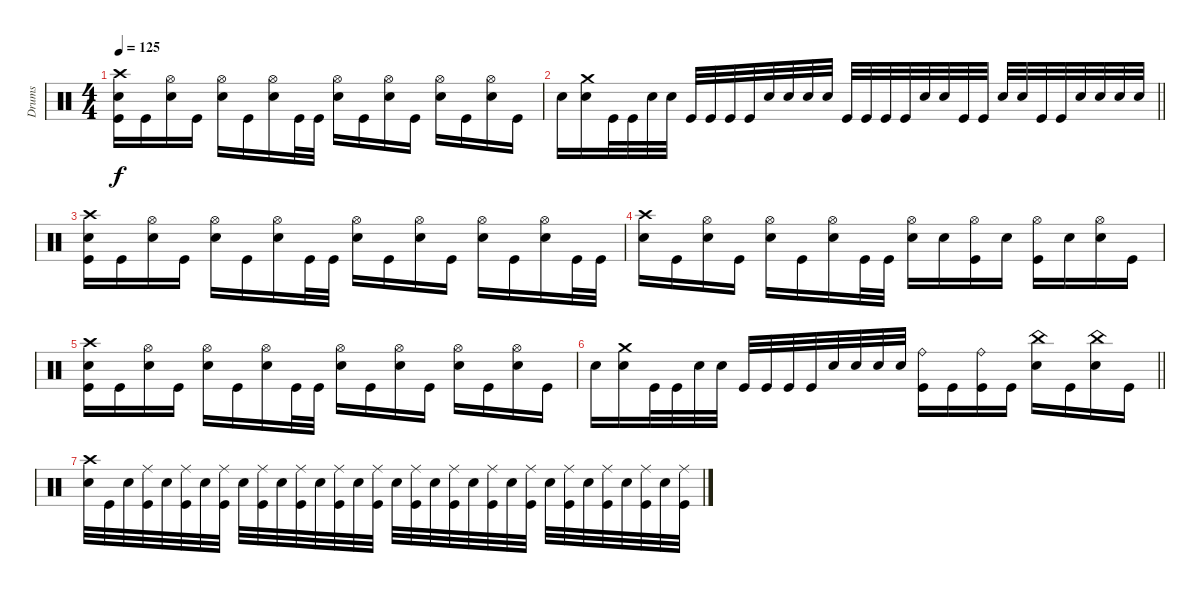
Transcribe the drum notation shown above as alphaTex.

\track ("Drums" "Drums") {instrument percussion}
\staff
\articulation defaults
\ts (4 4)
\tempo 125
\clef neutral
\ks c
("Crash high (hit)" "Electric Snare (hit)" "Kick (hit)").16{dy f} "Kick (hit)".16 ("Hi-Hat (open)" "Electric Snare (hit)").16 "Kick (hit)".16 ("Hi-Hat (open)" "Electric Snare (hit)").16 "Kick (hit)".16 ("Hi-Hat (open)" "Electric Snare (hit)").16 "Kick (hit)".32 "Kick (hit)".32 ("Hi-Hat (open)" "Electric Snare (hit)").16 "Kick (hit)".16 ("Hi-Hat (open)" "Electric Snare (hit)").16 "Kick (hit)".16 ("Hi-Hat (open)" "Electric Snare (hit)").16 "Kick (hit)".16 ("Hi-Hat (open)" "Electric Snare (hit)").16 "Kick (hit)".16 |
\barLineRight lightlight "Electric Snare (hit)".16
("Crash medium (hit)" "Electric Snare (hit)").16 "Kick (hit)".32 "Kick (hit)".32 "Electric Snare (hit)".32 "Electric Snare (hit)".32 "Kick (hit)".32 "Kick (hit)".32 "Kick (hit)".32 "Kick (hit)".32 "Electric Snare (hit)".32 "Electric Snare (hit)".32 "Electric Snare (hit)".32 "Electric Snare (hit)".32 "Kick (hit)".32 "Kick (hit)".32 "Kick (hit)".32 "Kick (hit)".32 "Electric Snare (hit)".32 "Electric Snare (hit)".32 "Kick (hit)".32 "Kick (hit)".32 "Electric Snare (hit)".32 "Electric Snare (hit)".32 "Kick (hit)".32 "Kick (hit)".32 "Electric Snare (hit)".32 "Electric Snare (hit)".32 "Electric Snare (hit)".32 "Electric Snare (hit)".32 |
("Crash high (hit)" "Electric Snare (hit)" "Kick (hit)").16 "Kick (hit)".16 ("Hi-Hat (open)" "Electric Snare (hit)").16 "Kick (hit)".16 ("Hi-Hat (open)" "Electric Snare (hit)").16 "Kick (hit)".16 ("Hi-Hat (open)" "Electric Snare (hit)").16 "Kick (hit)".32 "Kick (hit)".32 ("Hi-Hat (open)" "Electric Snare (hit)").16 "Kick (hit)".16 ("Hi-Hat (open)" "Electric Snare (hit)").16 "Kick (hit)".16 ("Hi-Hat (open)" "Electric Snare (hit)").16 "Kick (hit)".16 ("Hi-Hat (open)" "Electric Snare (hit)").16 "Kick (hit)".32 "Kick (hit)".32 |
("Crash high (hit)" "Electric Snare (hit)").16 "Kick (hit)".16 ("Hi-Hat (open)" "Electric Snare (hit)").16 "Kick (hit)".16 ("Hi-Hat (open)" "Electric Snare (hit)").16 "Kick (hit)".16 ("Hi-Hat (open)" "Electric Snare (hit)").16 "Kick (hit)".32 "Kick (hit)".32 ("Hi-Hat (open)" "Electric Snare (hit)").16 "Electric Snare (hit)".16 ("Hi-Hat (open)" "Kick (hit)").16 "Electric Snare (hit)".16 ("Hi-Hat (open)" "Kick (hit)").16 "Electric Snare (hit)".16 ("Hi-Hat (open)" "Electric Snare (hit)").16 "Kick (hit)".16 |
("Crash high (hit)" "Electric Snare (hit)" "Kick (hit)").16 "Kick (hit)".16 ("Hi-Hat (open)" "Electric Snare (hit)").16 "Kick (hit)".16 ("Hi-Hat (open)" "Electric Snare (hit)").16 "Kick (hit)".16 ("Hi-Hat (open)" "Electric Snare (hit)").16 "Kick (hit)".32 "Kick (hit)".32 ("Hi-Hat (open)" "Electric Snare (hit)").16 "Kick (hit)".16 ("Hi-Hat (open)" "Electric Snare (hit)").16 "Kick (hit)".16 ("Hi-Hat (open)" "Electric Snare (hit)").16 "Kick (hit)".16 ("Hi-Hat (open)" "Electric Snare (hit)").16 "Kick (hit)".16 |
\barLineRight lightlight "Electric Snare (hit)".16
("Crash medium (hit)" "Electric Snare (hit)").16 "Kick (hit)".32 "Kick (hit)".32 "Electric Snare (hit)".32 "Electric Snare (hit)".32 "Kick (hit)".32 "Kick (hit)".32 "Kick (hit)".32 "Kick (hit)".32 "Electric Snare (hit)".32 "Electric Snare (hit)".32 "Electric Snare (hit)".32 "Electric Snare (hit)".32 ("Ride (bell)" "Kick (hit)").16 "Kick (hit)".16 ("Ride (bell)" "Kick (hit)").16 "Kick (hit)".16 ("China (hit)" "Electric Snare (hit)").16 "Kick (hit)".16 ("China (hit)" "Electric Snare (hit)").16 "Kick (hit)".16 |
("Crash high (hit)" "Electric Snare (hit)").32 "Kick (hit)".32 "Electric Snare (hit)".32 ("Ride (middle)" "Kick (hit)").32 "Electric Snare (hit)".32 ("Ride (middle)" "Kick (hit)").32 "Electric Snare (hit)".32 ("Ride (middle)" "Kick (hit)").32 "Electric Snare (hit)".32 ("Ride (middle)" "Kick (hit)").32 "Electric Snare (hit)".32 ("Ride (middle)" "Kick (hit)").32 "Electric Snare (hit)".32 ("Ride (middle)" "Kick (hit)").32 "Electric Snare (hit)".32 ("Ride (middle)" "Kick (hit)").32 "Electric Snare (hit)".32 ("Ride (middle)" "Kick (hit)").32 "Electric Snare (hit)".32 ("Ride (middle)" "Kick (hit)").32 "Electric Snare (hit)".32 ("Ride (middle)" "Kick (hit)").32 "Electric Snare (hit)".32 ("Ride (middle)" "Kick (hit)").32 "Electric Snare (hit)".32 ("Ride (middle)" "Kick (hit)").32 "Electric Snare (hit)".32 ("Ride (middle)" "Kick (hit)").32 "Electric Snare (hit)".32 ("Ride (middle)" "Kick (hit)").32 "Electric Snare (hit)".32 ("Ride (middle)" "Kick (hit)").32
